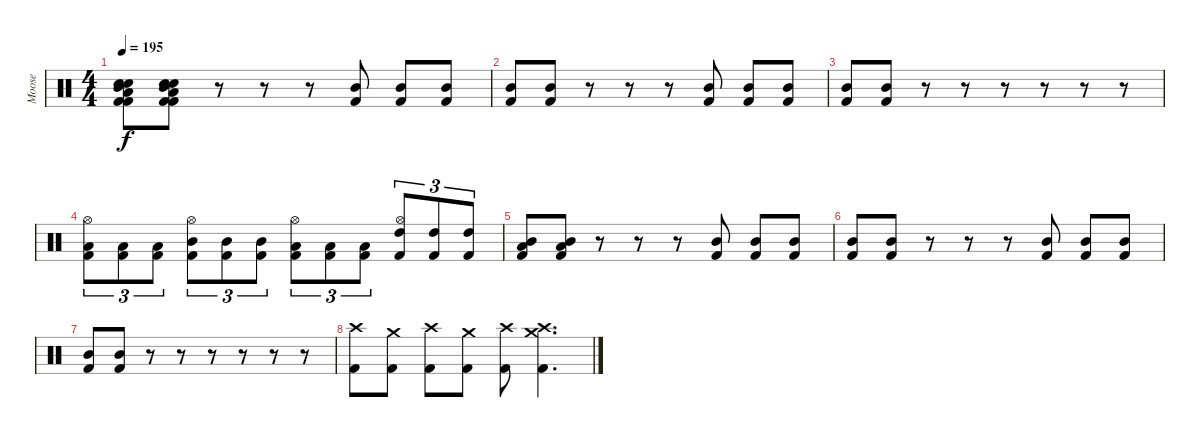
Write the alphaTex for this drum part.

\track ("Moose" "Moose") {instrument percussion}
\staff {score}
\articulation defaults
\ts (4 4)
\tempo 195
\clef neutral
\ks c
("Low Tom (hit)" "Kick (hit) 2" "Mid Tom (hit)" "Electric Snare (hit)" "Snare (hit) 2" "Kick (hit) 2").8{dy f} ("Low Tom (hit)" "Kick (hit) 2" "Mid Tom (hit)" "Electric Snare (hit)" "Snare (hit) 2" "Kick (hit) 2").8 r.8 r.8 r.8 ("Mid Tom (hit)" "Kick (hit) 2").8 ("Mid Tom (hit)" "Kick (hit) 2").8 ("Mid Tom (hit)" "Kick (hit) 2").8 |
("Mid Tom (hit)" "Kick (hit) 2").8 ("Mid Tom (hit)" "Kick (hit) 2").8 r.8 r.8 r.8 ("Mid Tom (hit)" "Kick (hit) 2").8 ("Mid Tom (hit)" "Kick (hit) 2").8 ("Mid Tom (hit)" "Kick (hit) 2").8 |
("Mid Tom (hit)" "Kick (hit) 2").8 ("Mid Tom (hit)" "Kick (hit) 2").8 r.8 r.8 r.8 r.8 r.8 r.8 |
("Hi-Hat (open)" "Low Tom (hit)" "Kick (hit) 2").8{tu (3 2)} ("Low Tom (hit)" "Kick (hit) 2").8{tu (3 2)} ("Low Tom (hit)" "Kick (hit) 2").8{tu (3 2)} ("Hi-Hat (open)" "Mid Tom (hit)" "Kick (hit) 2").8{tu (3 2)} ("Mid Tom (hit)" "Kick (hit) 2").8{tu (3 2)} ("Mid Tom (hit)" "Kick (hit) 2").8{tu (3 2)} ("Hi-Hat (open)" "Low Tom (hit)" "Kick (hit) 2").8{tu (3 2)} ("Low Tom (hit)" "Kick (hit) 2").8{tu (3 2)} ("Low Tom (hit)" "Kick (hit) 2").8{tu (3 2)} ("Hi-Hat (open)" "High Tom (hit)" "Kick (hit) 2").8{tu (3 2)} ("High Tom (hit)" "Kick (hit) 2").8{tu (3 2)} ("High Tom (hit)" "Kick (hit) 2").8{tu (3 2)} |
("Low Tom (hit)" "Mid Tom (hit)" "Kick (hit) 2").8 ("Low Tom (hit)" "Mid Tom (hit)" "Kick (hit) 2").8 r.8 r.8 r.8 ("Mid Tom (hit)" "Kick (hit) 2").8 ("Mid Tom (hit)" "Kick (hit) 2").8 ("Mid Tom (hit)" "Kick (hit) 2").8 |
("Mid Tom (hit)" "Kick (hit) 2").8 ("Mid Tom (hit)" "Kick (hit) 2").8 r.8 r.8 r.8 ("Mid Tom (hit)" "Kick (hit) 2").8 ("Mid Tom (hit)" "Kick (hit) 2").8 ("Mid Tom (hit)" "Kick (hit) 2").8 |
("Mid Tom (hit)" "Kick (hit) 2").8 ("Mid Tom (hit)" "Kick (hit) 2").8 r.8 r.8 r.8 r.8 r.8 r.8 |
("Crash high (hit)" "Kick (hit) 2").8 ("Crash medium (hit)" "Kick (hit) 2").8 ("Crash high (hit)" "Kick (hit) 2").8 ("Crash medium (hit)" "Kick (hit) 2").8 ("Crash high (hit)" "Kick (hit) 2").8 ("Crash medium (hit)" "Crash high (hit)" "Kick (hit) 2").4{d}
